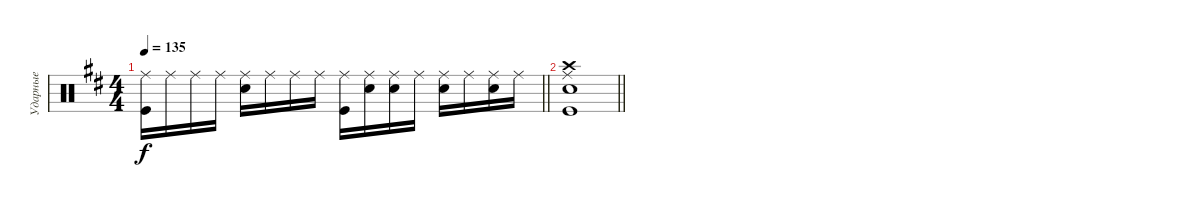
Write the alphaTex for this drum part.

\track ("Ударные" "Ударные") {solo instrument percussion}
\staff {score}
\articulation defaults
\ts (4 4)
\tempo 135
\clef neutral
\barLineRight lightlight
\ks bminor
("Kick (hit)" "Ride (middle)").16{dy f} "Ride (middle)".16 "Ride (middle)".16 "Ride (middle)".16 ("Ride (middle)" "Snare (hit) 2").16 "Ride (middle)".16 "Ride (middle)".16 "Ride (middle)".16 ("Kick (hit)" "Ride (middle)").16 ("Ride (middle)" "Snare (hit) 2").16 ("Ride (middle)" "Snare (hit) 2").16 "Ride (middle)".16 ("Ride (middle)" "Snare (hit) 2").16 "Ride (middle)".16 ("Ride (middle)" "Snare (hit) 2").16 "Ride (middle)".16 |
\barLineRight lightlight
("Kick (hit)" "Ride (middle)" "Crash high (hit)" "Snare (hit) 2").1
